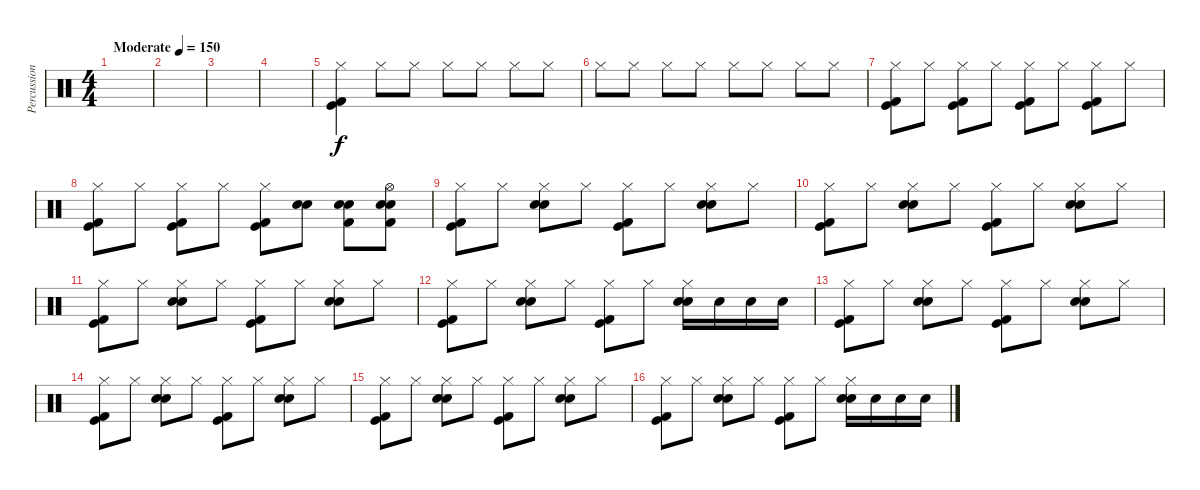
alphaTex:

\track ("Percussion" "Percussion") {instrument percussion}
\staff {score}
\articulation defaults
\ts (4 4)
\tempo (150 "Moderate")
\clef neutral
\ks c
|
|
|
|
("Kick (hit)" "Kick (hit) 2" "Hi-Hat (closed)").4 "Hi-Hat (closed)".8 "Hi-Hat (closed)".8 "Hi-Hat (closed)".8 "Hi-Hat (closed)".8 "Hi-Hat (closed)".8 "Hi-Hat (closed)".8 |
"Hi-Hat (closed)".8 "Hi-Hat (closed)".8 "Hi-Hat (closed)".8 "Hi-Hat (closed)".8 "Hi-Hat (closed)".8 "Hi-Hat (closed)".8 "Hi-Hat (closed)".8 "Hi-Hat (closed)".8 |
("Hi-Hat (closed)" "Kick (hit) 2" "Kick (hit)").8 "Hi-Hat (closed)".8 ("Hi-Hat (closed)" "Kick (hit) 2" "Kick (hit)").8 "Hi-Hat (closed)".8 ("Hi-Hat (closed)" "Kick (hit) 2" "Kick (hit)").8 "Hi-Hat (closed)".8 ("Hi-Hat (closed)" "Kick (hit) 2" "Kick (hit)").8 "Hi-Hat (closed)".8 |
("Hi-Hat (closed)" "Kick (hit) 2" "Kick (hit)").8 "Hi-Hat (closed)".8 ("Hi-Hat (closed)" "Kick (hit)" "Kick (hit) 2").8 "Hi-Hat (closed)".8 ("Hi-Hat (closed)" "Kick (hit) 2" "Kick (hit)").8 ("Snare (hit) 2" "Snare (hit) 2").8 ("Snare (hit) 2" "Snare (hit) 2" "Kick (hit) 2").8 ("Hi-Hat (open)" "Snare (hit) 2" "Snare (hit) 2" "Kick (hit) 2").8 |
("Hi-Hat (closed)" "Kick (hit) 2" "Kick (hit)").8 "Hi-Hat (closed)".8 ("Hi-Hat (closed)" "Snare (hit) 2" "Snare (hit) 2").8 "Hi-Hat (closed)".8 ("Hi-Hat (closed)" "Kick (hit) 2" "Kick (hit)").8 "Hi-Hat (closed)".8 ("Hi-Hat (closed)" "Snare (hit) 2" "Snare (hit) 2").8 "Hi-Hat (closed)".8 |
("Hi-Hat (closed)" "Kick (hit) 2" "Kick (hit)").8 "Hi-Hat (closed)".8 ("Hi-Hat (closed)" "Snare (hit) 2" "Snare (hit) 2").8 "Hi-Hat (closed)".8 ("Hi-Hat (closed)" "Kick (hit) 2" "Kick (hit)").8 "Hi-Hat (closed)".8 ("Hi-Hat (closed)" "Snare (hit) 2" "Snare (hit) 2").8 "Hi-Hat (closed)".8 |
("Hi-Hat (closed)" "Kick (hit) 2" "Kick (hit)").8 "Hi-Hat (closed)".8 ("Hi-Hat (closed)" "Snare (hit) 2" "Snare (hit) 2").8 "Hi-Hat (closed)".8 ("Hi-Hat (closed)" "Kick (hit) 2" "Kick (hit)").8 "Hi-Hat (closed)".8 ("Hi-Hat (closed)" "Snare (hit) 2" "Snare (hit) 2").8 "Hi-Hat (closed)".8 |
("Hi-Hat (closed)" "Kick (hit) 2" "Kick (hit)").8 "Hi-Hat (closed)".8 ("Hi-Hat (closed)" "Snare (hit) 2" "Snare (hit) 2").8 "Hi-Hat (closed)".8 ("Hi-Hat (closed)" "Kick (hit) 2" "Kick (hit)").8 "Hi-Hat (closed)".8 ("Hi-Hat (closed)" "Snare (hit) 2" "Snare (hit) 2").16 "Snare (hit) 2".16 "Snare (hit) 2".16 "Snare (hit) 2".16 |
("Hi-Hat (closed)" "Kick (hit) 2" "Kick (hit)").8 "Hi-Hat (closed)".8 ("Hi-Hat (closed)" "Snare (hit) 2" "Snare (hit) 2").8 "Hi-Hat (closed)".8 ("Hi-Hat (closed)" "Kick (hit) 2" "Kick (hit)").8 "Hi-Hat (closed)".8 ("Hi-Hat (closed)" "Snare (hit) 2" "Snare (hit) 2").8 "Hi-Hat (closed)".8 |
("Hi-Hat (closed)" "Kick (hit) 2" "Kick (hit)").8 "Hi-Hat (closed)".8 ("Hi-Hat (closed)" "Snare (hit) 2" "Snare (hit) 2").8 "Hi-Hat (closed)".8 ("Hi-Hat (closed)" "Kick (hit) 2" "Kick (hit)").8 "Hi-Hat (closed)".8 ("Hi-Hat (closed)" "Snare (hit) 2" "Snare (hit) 2").8 "Hi-Hat (closed)".8 |
("Hi-Hat (closed)" "Kick (hit) 2" "Kick (hit)").8 "Hi-Hat (closed)".8 ("Hi-Hat (closed)" "Snare (hit) 2" "Snare (hit) 2").8 "Hi-Hat (closed)".8 ("Hi-Hat (closed)" "Kick (hit) 2" "Kick (hit)").8 "Hi-Hat (closed)".8 ("Hi-Hat (closed)" "Snare (hit) 2" "Snare (hit) 2").8 "Hi-Hat (closed)".8 |
("Hi-Hat (closed)" "Kick (hit) 2" "Kick (hit)").8 "Hi-Hat (closed)".8 ("Hi-Hat (closed)" "Snare (hit) 2" "Snare (hit) 2").8 "Hi-Hat (closed)".8 ("Hi-Hat (closed)" "Kick (hit) 2" "Kick (hit)").8 "Hi-Hat (closed)".8 ("Hi-Hat (closed)" "Snare (hit) 2" "Snare (hit) 2").16 "Snare (hit) 2".16 "Snare (hit) 2".16 "Snare (hit) 2".16
